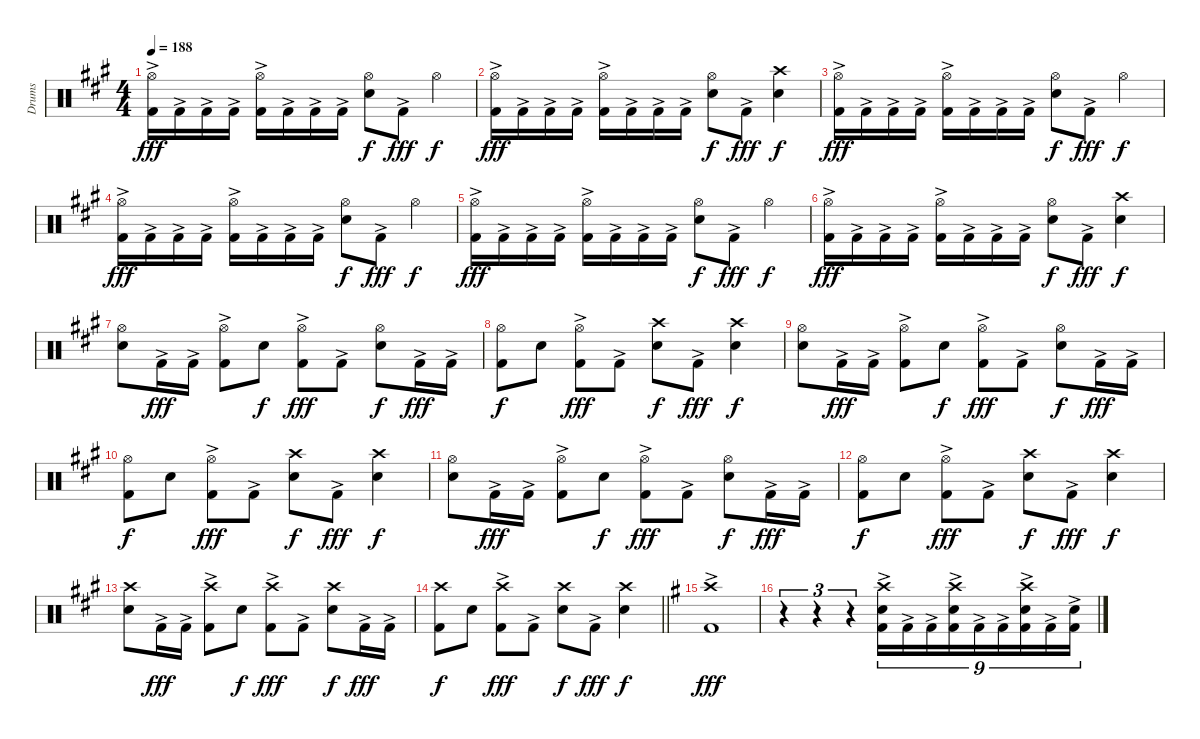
\track ("Drums" "Drums") {instrument percussion}
\staff {score}
\articulation defaults
\ts (4 4)
\tempo 188
\clef neutral
\ks f#minor
("Hi-Hat (open)" "Kick (hit) 2"{ac}).16{dy fff} "Kick (hit) 2"{ac}.16 "Kick (hit) 2"{ac}.16 "Kick (hit) 2"{ac}.16 ("Hi-Hat (open)" "Kick (hit) 2"{ac}).16 "Kick (hit) 2"{ac}.16 "Kick (hit) 2"{ac}.16 "Kick (hit) 2"{ac}.16 ("Hi-Hat (open)" "Snare (hit) 2").8{dy f} "Kick (hit) 2"{ac}.8{dy fff} "Hi-Hat (open)".4{dy f} |
("Hi-Hat (open)" "Kick (hit) 2"{ac}).16{dy fff} "Kick (hit) 2"{ac}.16 "Kick (hit) 2"{ac}.16 "Kick (hit) 2"{ac}.16 ("Hi-Hat (open)" "Kick (hit) 2"{ac}).16 "Kick (hit) 2"{ac}.16 "Kick (hit) 2"{ac}.16 "Kick (hit) 2"{ac}.16 ("Hi-Hat (open)" "Snare (hit) 2").8{dy f} "Kick (hit) 2"{ac}.8{dy fff} ("Crash high (hit)" "Snare (hit) 2").4{dy f} |
("Hi-Hat (open)" "Kick (hit) 2"{ac}).16{dy fff} "Kick (hit) 2"{ac}.16 "Kick (hit) 2"{ac}.16 "Kick (hit) 2"{ac}.16 ("Hi-Hat (open)" "Kick (hit) 2"{ac}).16 "Kick (hit) 2"{ac}.16 "Kick (hit) 2"{ac}.16 "Kick (hit) 2"{ac}.16 ("Hi-Hat (open)" "Snare (hit) 2").8{dy f} "Kick (hit) 2"{ac}.8{dy fff} "Hi-Hat (open)".4{dy f} |
("Hi-Hat (open)" "Kick (hit) 2"{ac}).16{dy fff} "Kick (hit) 2"{ac}.16 "Kick (hit) 2"{ac}.16 "Kick (hit) 2"{ac}.16 ("Hi-Hat (open)" "Kick (hit) 2"{ac}).16 "Kick (hit) 2"{ac}.16 "Kick (hit) 2"{ac}.16 "Kick (hit) 2"{ac}.16 ("Hi-Hat (open)" "Snare (hit) 2").8{dy f} "Kick (hit) 2"{ac}.8{dy fff} "Hi-Hat (open)".4{dy f} |
("Hi-Hat (open)" "Kick (hit) 2"{ac}).16{dy fff} "Kick (hit) 2"{ac}.16 "Kick (hit) 2"{ac}.16 "Kick (hit) 2"{ac}.16 ("Hi-Hat (open)" "Kick (hit) 2"{ac}).16 "Kick (hit) 2"{ac}.16 "Kick (hit) 2"{ac}.16 "Kick (hit) 2"{ac}.16 ("Hi-Hat (open)" "Snare (hit) 2").8{dy f} "Kick (hit) 2"{ac}.8{dy fff} "Hi-Hat (open)".4{dy f} |
("Hi-Hat (open)" "Kick (hit) 2"{ac}).16{dy fff} "Kick (hit) 2"{ac}.16 "Kick (hit) 2"{ac}.16 "Kick (hit) 2"{ac}.16 ("Hi-Hat (open)" "Kick (hit) 2"{ac}).16 "Kick (hit) 2"{ac}.16 "Kick (hit) 2"{ac}.16 "Kick (hit) 2"{ac}.16 ("Hi-Hat (open)" "Snare (hit) 2").8{dy f} "Kick (hit) 2"{ac}.8{dy fff} ("Crash high (hit)" "Snare (hit) 2").4{dy f} |
("Hi-Hat (open)" "Snare (hit) 2").8 "Kick (hit) 2"{ac}.16{dy fff} "Kick (hit) 2"{ac}.16 ("Hi-Hat (open)" "Kick (hit) 2"{ac}).8 "Snare (hit) 2".8{dy f} ("Hi-Hat (open)" "Kick (hit) 2"{ac}).8{dy fff} "Kick (hit) 2"{ac}.8 ("Hi-Hat (open)" "Snare (hit) 2").8{dy f} "Kick (hit) 2"{ac}.16{dy fff} "Kick (hit) 2"{ac}.16 |
("Hi-Hat (open)" "Kick (hit) 2").8{dy f} "Snare (hit) 2".8 ("Hi-Hat (open)" "Kick (hit) 2"{ac}).8{dy fff} "Kick (hit) 2"{ac}.8 ("Crash high (hit)" "Snare (hit) 2").8{dy f} "Kick (hit) 2"{ac}.8{dy fff} ("Crash high (hit)" "Snare (hit) 2").4{dy f} |
("Hi-Hat (open)" "Snare (hit) 2").8 "Kick (hit) 2"{ac}.16{dy fff} "Kick (hit) 2"{ac}.16 ("Hi-Hat (open)" "Kick (hit) 2"{ac}).8 "Snare (hit) 2".8{dy f} ("Hi-Hat (open)" "Kick (hit) 2"{ac}).8{dy fff} "Kick (hit) 2"{ac}.8 ("Hi-Hat (open)" "Snare (hit) 2").8{dy f} "Kick (hit) 2"{ac}.16{dy fff} "Kick (hit) 2"{ac}.16 |
("Hi-Hat (open)" "Kick (hit) 2").8{dy f} "Snare (hit) 2".8 ("Hi-Hat (open)" "Kick (hit) 2"{ac}).8{dy fff} "Kick (hit) 2"{ac}.8 ("Crash high (hit)" "Snare (hit) 2").8{dy f} "Kick (hit) 2"{ac}.8{dy fff} ("Crash high (hit)" "Snare (hit) 2").4{dy f} |
("Hi-Hat (open)" "Snare (hit) 2").8 "Kick (hit) 2"{ac}.16{dy fff} "Kick (hit) 2"{ac}.16 ("Hi-Hat (open)" "Kick (hit) 2"{ac}).8 "Snare (hit) 2".8{dy f} ("Hi-Hat (open)" "Kick (hit) 2"{ac}).8{dy fff} "Kick (hit) 2"{ac}.8 ("Hi-Hat (open)" "Snare (hit) 2").8{dy f} "Kick (hit) 2"{ac}.16{dy fff} "Kick (hit) 2"{ac}.16 |
("Hi-Hat (open)" "Kick (hit) 2").8{dy f} "Snare (hit) 2".8 ("Hi-Hat (open)" "Kick (hit) 2"{ac}).8{dy fff} "Kick (hit) 2"{ac}.8 ("Crash high (hit)" "Snare (hit) 2").8{dy f} "Kick (hit) 2"{ac}.8{dy fff} ("Crash high (hit)" "Snare (hit) 2").4{dy f} |
("Crash high (hit)" "Snare (hit) 2").8 "Kick (hit) 2"{ac}.16{dy fff} "Kick (hit) 2"{ac}.16 ("Crash high (hit)" "Kick (hit) 2"{ac}).8 "Snare (hit) 2".8{dy f} ("Crash high (hit)" "Kick (hit) 2"{ac}).8{dy fff} "Kick (hit) 2"{ac}.8 ("Crash high (hit)" "Snare (hit) 2").8{dy f} "Kick (hit) 2"{ac}.16{dy fff} "Kick (hit) 2"{ac}.16 |
\barLineRight lightlight
("Crash high (hit)" "Kick (hit) 2").8{dy f} "Snare (hit) 2".8 ("Crash high (hit)" "Kick (hit) 2"{ac}).8{dy fff} "Kick (hit) 2"{ac}.8 ("Crash high (hit)" "Snare (hit) 2").8{dy f} "Kick (hit) 2"{ac}.8{dy fff} ("Crash high (hit)" "Snare (hit) 2").4{dy f} |
\ks eminor
("Crash high (hit)" "Kick (hit) 2"{ac}).1{dy fff} |
r.4{tu (3 2)} r.4{tu (3 2)} r.4{tu (3 2)} ("Crash high (hit)" "Snare (hit) 2" "Kick (hit) 2"{ac}).16{tu (9 8)} "Kick (hit) 2"{ac}.16{tu (9 8)} "Kick (hit) 2"{ac}.16{tu (9 8)} ("Crash high (hit)" "Snare (hit) 2" "Kick (hit) 2"{ac}).16{tu (9 8)} "Kick (hit) 2"{ac}.16{tu (9 8)} "Kick (hit) 2"{ac}.16{tu (9 8)} ("Crash high (hit)" "Snare (hit) 2" "Kick (hit) 2"{ac}).16{tu (9 8)} "Kick (hit) 2"{ac}.16{tu (9 8)} ("Snare (hit) 2" "Kick (hit) 2"{ac}).16{tu (9 8)}
